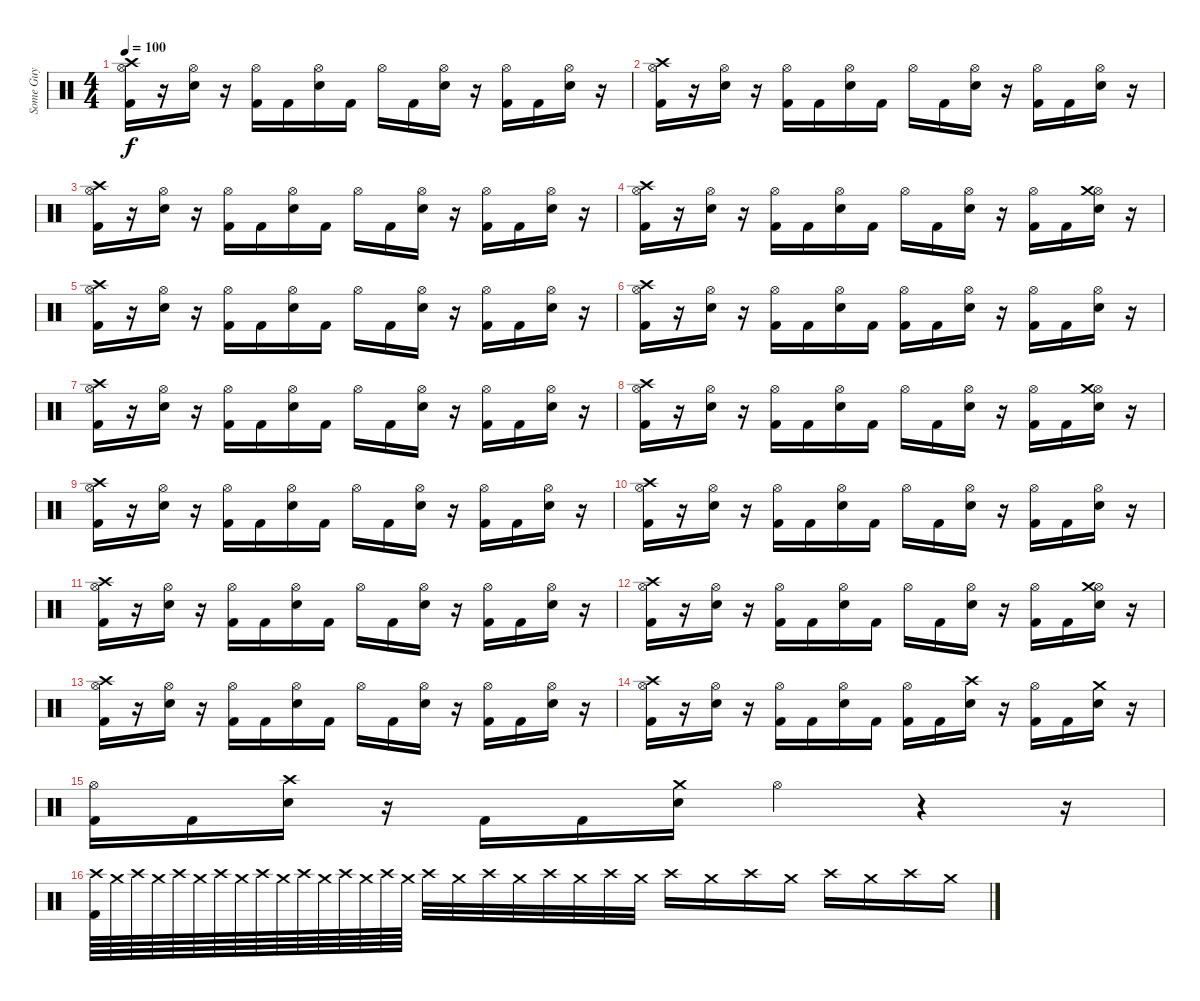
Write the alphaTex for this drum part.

\track ("Some Guy" "Some Guy") {instrument percussion}
\staff {score}
\articulation defaults
\ts (4 4)
\tempo 100
\clef neutral
\ks c
("Hi-Hat (open)" "Crash high (hit)" "Kick (hit) 2").16{dy f} r.16 ("Hi-Hat (open)" "Snare (hit) 2").16 r.16 ("Hi-Hat (open)" "Kick (hit) 2").16 "Kick (hit) 2".16 ("Hi-Hat (open)" "Snare (hit) 2").16 "Kick (hit) 2".16 "Hi-Hat (open)".16 "Kick (hit) 2".16 ("Hi-Hat (open)" "Snare (hit) 2").16 r.16 ("Hi-Hat (open)" "Kick (hit) 2").16 "Kick (hit) 2".16 ("Hi-Hat (open)" "Snare (hit) 2").16 r.16 |
("Hi-Hat (open)" "Crash high (hit)" "Kick (hit) 2").16 r.16 ("Hi-Hat (open)" "Snare (hit) 2").16 r.16 ("Hi-Hat (open)" "Kick (hit) 2").16 "Kick (hit) 2".16 ("Hi-Hat (open)" "Snare (hit) 2").16 "Kick (hit) 2".16 "Hi-Hat (open)".16 "Kick (hit) 2".16 ("Hi-Hat (open)" "Snare (hit) 2").16 r.16 ("Hi-Hat (open)" "Kick (hit) 2").16 "Kick (hit) 2".16 ("Hi-Hat (open)" "Snare (hit) 2").16 r.16 |
("Hi-Hat (open)" "Crash high (hit)" "Kick (hit) 2").16 r.16 ("Hi-Hat (open)" "Snare (hit) 2").16 r.16 ("Hi-Hat (open)" "Kick (hit) 2").16 "Kick (hit) 2".16 ("Hi-Hat (open)" "Snare (hit) 2").16 "Kick (hit) 2".16 "Hi-Hat (open)".16 "Kick (hit) 2".16 ("Hi-Hat (open)" "Snare (hit) 2").16 r.16 ("Hi-Hat (open)" "Kick (hit) 2").16 "Kick (hit) 2".16 ("Hi-Hat (open)" "Snare (hit) 2").16 r.16 |
("Hi-Hat (open)" "Crash high (hit)" "Kick (hit) 2").16 r.16 ("Hi-Hat (open)" "Snare (hit) 2").16 r.16 ("Hi-Hat (open)" "Kick (hit) 2").16 "Kick (hit) 2".16 ("Hi-Hat (open)" "Snare (hit) 2").16 "Kick (hit) 2".16 "Hi-Hat (open)".16 "Kick (hit) 2".16 ("Hi-Hat (open)" "Snare (hit) 2").16 r.16 ("Hi-Hat (open)" "Kick (hit) 2").16 "Kick (hit) 2".16 ("Hi-Hat (open)" "Crash medium (hit)" "Snare (hit) 2").16 r.16 |
("Hi-Hat (open)" "Crash high (hit)" "Kick (hit) 2").16 r.16 ("Hi-Hat (open)" "Snare (hit) 2").16 r.16 ("Hi-Hat (open)" "Kick (hit) 2").16 "Kick (hit) 2".16 ("Hi-Hat (open)" "Snare (hit) 2").16 "Kick (hit) 2".16 "Hi-Hat (open)".16 "Kick (hit) 2".16 ("Hi-Hat (open)" "Snare (hit) 2").16 r.16 ("Hi-Hat (open)" "Kick (hit) 2").16 "Kick (hit) 2".16 ("Hi-Hat (open)" "Snare (hit) 2").16 r.16 |
("Hi-Hat (open)" "Crash high (hit)" "Kick (hit) 2").16 r.16 ("Hi-Hat (open)" "Snare (hit) 2").16 r.16 ("Hi-Hat (open)" "Kick (hit) 2").16 "Kick (hit) 2".16 ("Hi-Hat (open)" "Snare (hit) 2").16 "Kick (hit) 2".16 ("Hi-Hat (open)" "Kick (hit) 2").16 "Kick (hit) 2".16 ("Hi-Hat (open)" "Snare (hit) 2").16 r.16 ("Hi-Hat (open)" "Kick (hit) 2").16 "Kick (hit) 2".16 ("Hi-Hat (open)" "Snare (hit) 2").16 r.16 |
("Hi-Hat (open)" "Crash high (hit)" "Kick (hit) 2").16 r.16 ("Hi-Hat (open)" "Snare (hit) 2").16 r.16 ("Hi-Hat (open)" "Kick (hit) 2").16 "Kick (hit) 2".16 ("Hi-Hat (open)" "Snare (hit) 2").16 "Kick (hit) 2".16 "Hi-Hat (open)".16 "Kick (hit) 2".16 ("Hi-Hat (open)" "Snare (hit) 2").16 r.16 ("Hi-Hat (open)" "Kick (hit) 2").16 "Kick (hit) 2".16 ("Hi-Hat (open)" "Snare (hit) 2").16 r.16 |
("Hi-Hat (open)" "Crash high (hit)" "Kick (hit) 2").16 r.16 ("Hi-Hat (open)" "Snare (hit) 2").16 r.16 ("Hi-Hat (open)" "Kick (hit) 2").16 "Kick (hit) 2".16 ("Hi-Hat (open)" "Snare (hit) 2").16 "Kick (hit) 2".16 "Hi-Hat (open)".16 "Kick (hit) 2".16 ("Hi-Hat (open)" "Snare (hit) 2").16 r.16 ("Hi-Hat (open)" "Kick (hit) 2").16 "Kick (hit) 2".16 ("Hi-Hat (open)" "Crash medium (hit)" "Snare (hit) 2").16 r.16 |
("Hi-Hat (open)" "Crash high (hit)" "Kick (hit) 2").16 r.16 ("Hi-Hat (open)" "Snare (hit) 2").16 r.16 ("Hi-Hat (open)" "Kick (hit) 2").16 "Kick (hit) 2".16 ("Hi-Hat (open)" "Snare (hit) 2").16 "Kick (hit) 2".16 "Hi-Hat (open)".16 "Kick (hit) 2".16 ("Hi-Hat (open)" "Snare (hit) 2").16 r.16 ("Hi-Hat (open)" "Kick (hit) 2").16 "Kick (hit) 2".16 ("Hi-Hat (open)" "Snare (hit) 2").16 r.16 |
("Hi-Hat (open)" "Crash high (hit)" "Kick (hit) 2").16 r.16 ("Hi-Hat (open)" "Snare (hit) 2").16 r.16 ("Hi-Hat (open)" "Kick (hit) 2").16 "Kick (hit) 2".16 ("Hi-Hat (open)" "Snare (hit) 2").16 "Kick (hit) 2".16 "Hi-Hat (open)".16 "Kick (hit) 2".16 ("Hi-Hat (open)" "Snare (hit) 2").16 r.16 ("Hi-Hat (open)" "Kick (hit) 2").16 "Kick (hit) 2".16 ("Hi-Hat (open)" "Snare (hit) 2").16 r.16 |
("Hi-Hat (open)" "Crash high (hit)" "Kick (hit) 2").16 r.16 ("Hi-Hat (open)" "Snare (hit) 2").16 r.16 ("Hi-Hat (open)" "Kick (hit) 2").16 "Kick (hit) 2".16 ("Hi-Hat (open)" "Snare (hit) 2").16 "Kick (hit) 2".16 "Hi-Hat (open)".16 "Kick (hit) 2".16 ("Hi-Hat (open)" "Snare (hit) 2").16 r.16 ("Hi-Hat (open)" "Kick (hit) 2").16 "Kick (hit) 2".16 ("Hi-Hat (open)" "Snare (hit) 2").16 r.16 |
("Hi-Hat (open)" "Crash high (hit)" "Kick (hit) 2").16 r.16 ("Hi-Hat (open)" "Snare (hit) 2").16 r.16 ("Hi-Hat (open)" "Kick (hit) 2").16 "Kick (hit) 2".16 ("Hi-Hat (open)" "Snare (hit) 2").16 "Kick (hit) 2".16 "Hi-Hat (open)".16 "Kick (hit) 2".16 ("Hi-Hat (open)" "Snare (hit) 2").16 r.16 ("Hi-Hat (open)" "Kick (hit) 2").16 "Kick (hit) 2".16 ("Hi-Hat (open)" "Crash medium (hit)" "Snare (hit) 2").16 r.16 |
("Hi-Hat (open)" "Crash high (hit)" "Kick (hit) 2").16 r.16 ("Hi-Hat (open)" "Snare (hit) 2").16 r.16 ("Hi-Hat (open)" "Kick (hit) 2").16 "Kick (hit) 2".16 ("Hi-Hat (open)" "Snare (hit) 2").16 "Kick (hit) 2".16 "Hi-Hat (open)".16 "Kick (hit) 2".16 ("Hi-Hat (open)" "Snare (hit) 2").16 r.16 ("Hi-Hat (open)" "Kick (hit) 2").16 "Kick (hit) 2".16 ("Hi-Hat (open)" "Snare (hit) 2").16 r.16 |
("Hi-Hat (open)" "Crash high (hit)" "Kick (hit) 2").16 r.16 ("Hi-Hat (open)" "Snare (hit) 2").16 r.16 ("Hi-Hat (open)" "Kick (hit) 2").16 "Kick (hit) 2".16 ("Hi-Hat (open)" "Snare (hit) 2").16 "Kick (hit) 2".16 ("Hi-Hat (open)" "Kick (hit) 2").16 "Kick (hit) 2".16 ("Crash high (hit)" "Snare (hit) 2").16 r.16 ("Hi-Hat (open)" "Kick (hit) 2").16 "Kick (hit) 2".16 ("Crash medium (hit)" "Snare (hit) 2").16 r.16 |
("Hi-Hat (open)" "Kick (hit) 2").16 "Kick (hit) 2".16 ("Crash high (hit)" "Snare (hit) 2").16 r.16 "Kick (hit) 2".16 "Kick (hit) 2".16 ("Crash medium (hit)" "Snare (hit) 2").16 "Hi-Hat (open)".4 r.4 r.16 |
("Crash high (hit)" "Kick (hit) 2").64 "Crash medium (hit)".64 "Crash high (hit)".64 "Crash medium (hit)".64 "Crash high (hit)".64 "Crash medium (hit)".64 "Crash high (hit)".64 "Crash medium (hit)".64 "Crash high (hit)".64 "Crash medium (hit)".64 "Crash high (hit)".64 "Crash medium (hit)".64 "Crash high (hit)".64 "Crash medium (hit)".64 "Crash high (hit)".64 "Crash medium (hit)".64 "Crash high (hit)".32 "Crash medium (hit)".32 "Crash high (hit)".32 "Crash medium (hit)".32 "Crash high (hit)".32 "Crash medium (hit)".32 "Crash high (hit)".32 "Crash medium (hit)".32 "Crash high (hit)".16 "Crash medium (hit)".16 "Crash high (hit)".16 "Crash medium (hit)".16 "Crash high (hit)".16 "Crash medium (hit)".16 "Crash high (hit)".16 "Crash medium (hit)".16
